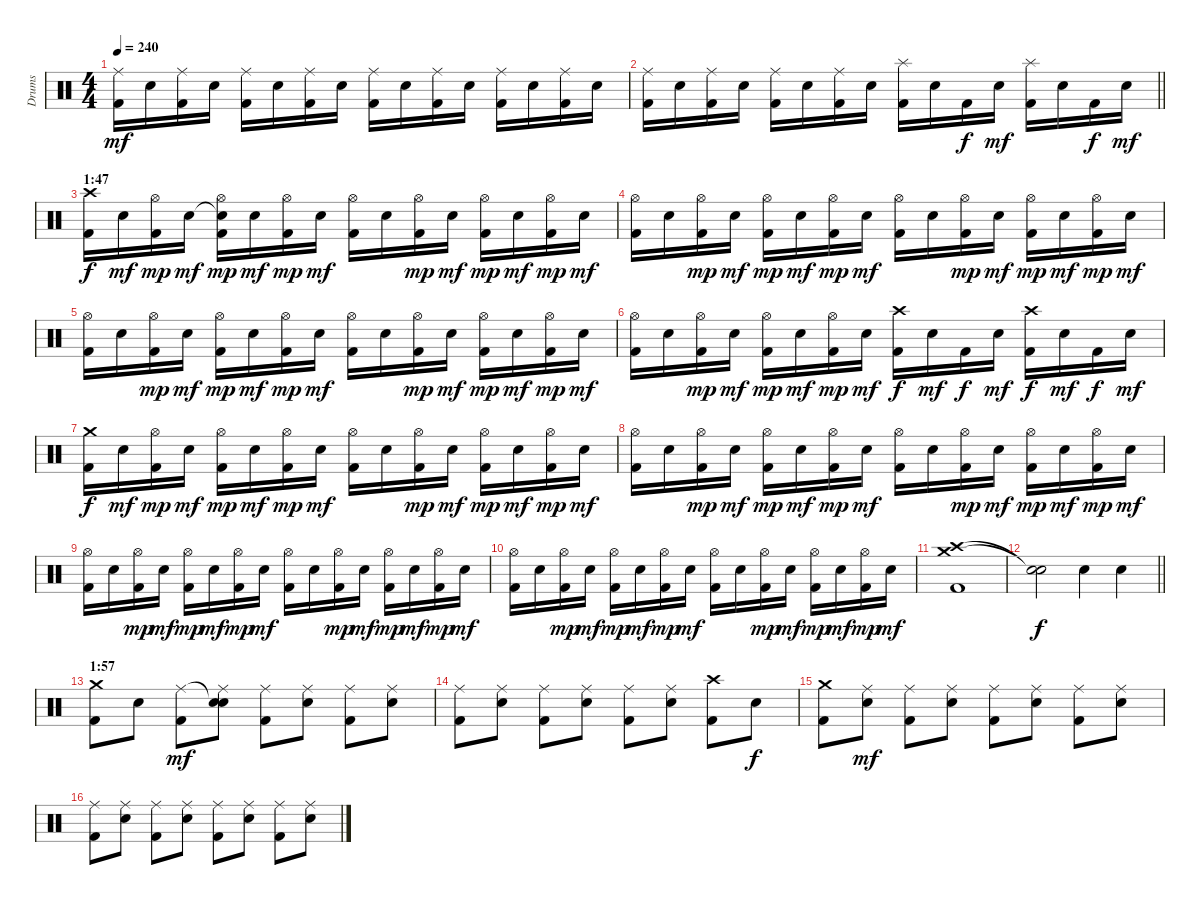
\track ("Drums" "Drums") {instrument percussion}
\staff {score}
\articulation defaults
\ts (4 4)
\tempo 240
\clef neutral
\ks c
("Ride (middle)" "Kick (hit) 2").16{dy mf} "Electric Snare (hit)".16 ("Ride (middle)" "Kick (hit) 2").16 "Electric Snare (hit)".16 ("Ride (middle)" "Kick (hit) 2").16 "Electric Snare (hit)".16 ("Ride (middle)" "Kick (hit) 2").16 "Electric Snare (hit)".16 ("Ride (middle)" "Kick (hit) 2").16 "Electric Snare (hit)".16 ("Ride (middle)" "Kick (hit) 2").16 "Electric Snare (hit)".16 ("Ride (middle)" "Kick (hit) 2").16 "Electric Snare (hit)".16 ("Ride (middle)" "Kick (hit) 2").16 "Electric Snare (hit)".16 |
\barLineRight lightlight
("Ride (middle)" "Kick (hit) 2").16 "Electric Snare (hit)".16 ("Ride (middle)" "Kick (hit) 2").16 "Electric Snare (hit)".16 ("Ride (middle)" "Kick (hit) 2").16 "Electric Snare (hit)".16 ("Ride (middle)" "Kick (hit) 2").16 "Electric Snare (hit)".16 ("Splash (hit)" "Kick (hit) 2").16 "Electric Snare (hit)".16 "Kick (hit) 2".16{dy f} "Electric Snare (hit)".16{dy mf} ("Splash (hit)" "Kick (hit) 2").16 "Electric Snare (hit)".16 "Kick (hit) 2".16{dy f} "Electric Snare (hit)".16{dy mf} |
\section ("" "1:47")
("Crash high (hit)" "Kick (hit) 2").16{dy f} "Electric Snare (hit)".16{dy mf} ("Hi-Hat (open)" "Kick (hit) 2").16{dy mp} "Electric Snare (hit)".16{dy mf} ("Snare (hit)"{t} "Hi-Hat (open)" "Kick (hit) 2").16{dy mp} "Electric Snare (hit)".16{dy mf} ("Hi-Hat (open)" "Kick (hit) 2").16{dy mp} "Electric Snare (hit)".16{dy mf} ("Hi-Hat (open)" "Kick (hit) 2").16 "Electric Snare (hit)".16 ("Hi-Hat (open)" "Kick (hit) 2").16{dy mp} "Electric Snare (hit)".16{dy mf} ("Hi-Hat (open)" "Kick (hit) 2").16{dy mp} "Electric Snare (hit)".16{dy mf} ("Hi-Hat (open)" "Kick (hit) 2").16{dy mp} "Electric Snare (hit)".16{dy mf} |
("Hi-Hat (open)" "Kick (hit) 2").16 "Electric Snare (hit)".16 ("Hi-Hat (open)" "Kick (hit) 2").16{dy mp} "Electric Snare (hit)".16{dy mf} ("Hi-Hat (open)" "Kick (hit) 2").16{dy mp} "Electric Snare (hit)".16{dy mf} ("Hi-Hat (open)" "Kick (hit) 2").16{dy mp} "Electric Snare (hit)".16{dy mf} ("Hi-Hat (open)" "Kick (hit) 2").16 "Electric Snare (hit)".16 ("Hi-Hat (open)" "Kick (hit) 2").16{dy mp} "Electric Snare (hit)".16{dy mf} ("Hi-Hat (open)" "Kick (hit) 2").16{dy mp} "Electric Snare (hit)".16{dy mf} ("Hi-Hat (open)" "Kick (hit) 2").16{dy mp} "Electric Snare (hit)".16{dy mf} |
("Hi-Hat (open)" "Kick (hit) 2").16 "Electric Snare (hit)".16 ("Hi-Hat (open)" "Kick (hit) 2").16{dy mp} "Electric Snare (hit)".16{dy mf} ("Hi-Hat (open)" "Kick (hit) 2").16{dy mp} "Electric Snare (hit)".16{dy mf} ("Hi-Hat (open)" "Kick (hit) 2").16{dy mp} "Electric Snare (hit)".16{dy mf} ("Hi-Hat (open)" "Kick (hit) 2").16 "Electric Snare (hit)".16 ("Hi-Hat (open)" "Kick (hit) 2").16{dy mp} "Electric Snare (hit)".16{dy mf} ("Hi-Hat (open)" "Kick (hit) 2").16{dy mp} "Electric Snare (hit)".16{dy mf} ("Hi-Hat (open)" "Kick (hit) 2").16{dy mp} "Electric Snare (hit)".16{dy mf} |
("Hi-Hat (open)" "Kick (hit) 2").16 "Electric Snare (hit)".16 ("Hi-Hat (open)" "Kick (hit) 2").16{dy mp} "Electric Snare (hit)".16{dy mf} ("Hi-Hat (open)" "Kick (hit) 2").16{dy mp} "Electric Snare (hit)".16{dy mf} ("Hi-Hat (open)" "Kick (hit) 2").16{dy mp} "Electric Snare (hit)".16{dy mf} ("Crash high (hit)" "Kick (hit) 2").16{dy f} "Electric Snare (hit)".16{dy mf} "Kick (hit) 2".16{dy f} "Electric Snare (hit)".16{dy mf} ("Crash high (hit)" "Kick (hit) 2").16{dy f} "Electric Snare (hit)".16{dy mf} "Kick (hit) 2".16{dy f} "Electric Snare (hit)".16{dy mf} |
("Crash medium (hit)" "Kick (hit) 2").16{dy f} "Electric Snare (hit)".16{dy mf} ("Hi-Hat (open)" "Kick (hit) 2").16{dy mp} "Electric Snare (hit)".16{dy mf} ("Hi-Hat (open)" "Kick (hit) 2").16{dy mp} "Electric Snare (hit)".16{dy mf} ("Hi-Hat (open)" "Kick (hit) 2").16{dy mp} "Electric Snare (hit)".16{dy mf} ("Hi-Hat (open)" "Kick (hit) 2").16 "Electric Snare (hit)".16 ("Hi-Hat (open)" "Kick (hit) 2").16{dy mp} "Electric Snare (hit)".16{dy mf} ("Hi-Hat (open)" "Kick (hit) 2").16{dy mp} "Electric Snare (hit)".16{dy mf} ("Hi-Hat (open)" "Kick (hit) 2").16{dy mp} "Electric Snare (hit)".16{dy mf} |
("Hi-Hat (open)" "Kick (hit) 2").16 "Electric Snare (hit)".16 ("Hi-Hat (open)" "Kick (hit) 2").16{dy mp} "Electric Snare (hit)".16{dy mf} ("Hi-Hat (open)" "Kick (hit) 2").16{dy mp} "Electric Snare (hit)".16{dy mf} ("Hi-Hat (open)" "Kick (hit) 2").16{dy mp} "Electric Snare (hit)".16{dy mf} ("Hi-Hat (open)" "Kick (hit) 2").16 "Electric Snare (hit)".16 ("Hi-Hat (open)" "Kick (hit) 2").16{dy mp} "Electric Snare (hit)".16{dy mf} ("Hi-Hat (open)" "Kick (hit) 2").16{dy mp} "Electric Snare (hit)".16{dy mf} ("Hi-Hat (open)" "Kick (hit) 2").16{dy mp} "Electric Snare (hit)".16{dy mf} |
("Hi-Hat (open)" "Kick (hit) 2").16 "Electric Snare (hit)".16 ("Hi-Hat (open)" "Kick (hit) 2").16{dy mp} "Electric Snare (hit)".16{dy mf} ("Hi-Hat (open)" "Kick (hit) 2").16{dy mp} "Electric Snare (hit)".16{dy mf} ("Hi-Hat (open)" "Kick (hit) 2").16{dy mp} "Electric Snare (hit)".16{dy mf} ("Hi-Hat (open)" "Kick (hit) 2").16 "Electric Snare (hit)".16 ("Hi-Hat (open)" "Kick (hit) 2").16{dy mp} "Electric Snare (hit)".16{dy mf} ("Hi-Hat (open)" "Kick (hit) 2").16{dy mp} "Electric Snare (hit)".16{dy mf} ("Hi-Hat (open)" "Kick (hit) 2").16{dy mp} "Electric Snare (hit)".16{dy mf} |
("Hi-Hat (open)" "Kick (hit) 2").16 "Electric Snare (hit)".16 ("Hi-Hat (open)" "Kick (hit) 2").16{dy mp} "Electric Snare (hit)".16{dy mf} ("Hi-Hat (open)" "Kick (hit) 2").16{dy mp} "Electric Snare (hit)".16{dy mf} ("Hi-Hat (open)" "Kick (hit) 2").16{dy mp} "Electric Snare (hit)".16{dy mf} ("Hi-Hat (open)" "Kick (hit) 2").16 "Electric Snare (hit)".16 ("Hi-Hat (open)" "Kick (hit) 2").16{dy mp} "Electric Snare (hit)".16{dy mf} ("Hi-Hat (open)" "Kick (hit) 2").16{dy mp} "Electric Snare (hit)".16{dy mf} ("Hi-Hat (open)" "Kick (hit) 2").16{dy mp} "Electric Snare (hit)".16{dy mf} |
("Crash medium (hit)" "Crash high (hit)" "Kick (hit) 2").1 |
\barLineRight lightlight
("Snare (hit)"{t} "Snare (hit)"{t}).2{dy f} "Electric Snare (hit)".4 "Electric Snare (hit)".4 |
\section ("" "1:57")
("Crash medium (hit)" "Kick (hit) 2").8 "Electric Snare (hit)".8 ("Ride (middle)" "Kick (hit) 2").8{dy mf} ("Snare (hit)"{t} "Ride (middle)" "Electric Snare (hit)").8 ("Ride (middle)" "Kick (hit) 2").8 ("Ride (middle)" "Electric Snare (hit)").8 ("Ride (middle)" "Kick (hit) 2").8 ("Ride (middle)" "Electric Snare (hit)").8 |
("Ride (middle)" "Kick (hit) 2").8 ("Ride (middle)" "Electric Snare (hit)").8 ("Ride (middle)" "Kick (hit) 2").8 ("Ride (middle)" "Electric Snare (hit)").8 ("Ride (middle)" "Kick (hit) 2").8 ("Ride (middle)" "Electric Snare (hit)").8 ("Crash high (hit)" "Kick (hit) 2").8 "Electric Snare (hit)".8{dy f} |
("Crash medium (hit)" "Kick (hit) 2").8 ("Ride (middle)" "Electric Snare (hit)").8{dy mf} ("Ride (middle)" "Kick (hit) 2").8 ("Ride (middle)" "Electric Snare (hit)").8 ("Ride (middle)" "Kick (hit) 2").8 ("Ride (middle)" "Electric Snare (hit)").8 ("Ride (middle)" "Kick (hit) 2").8 ("Ride (middle)" "Electric Snare (hit)").8 |
("Ride (middle)" "Kick (hit) 2").8 ("Ride (middle)" "Electric Snare (hit)").8 ("Ride (middle)" "Kick (hit) 2").8 ("Ride (middle)" "Electric Snare (hit)").8 ("Ride (middle)" "Kick (hit) 2").8 ("Ride (middle)" "Electric Snare (hit)").8 ("Ride (middle)" "Kick (hit) 2").8 ("Ride (middle)" "Electric Snare (hit)").8
